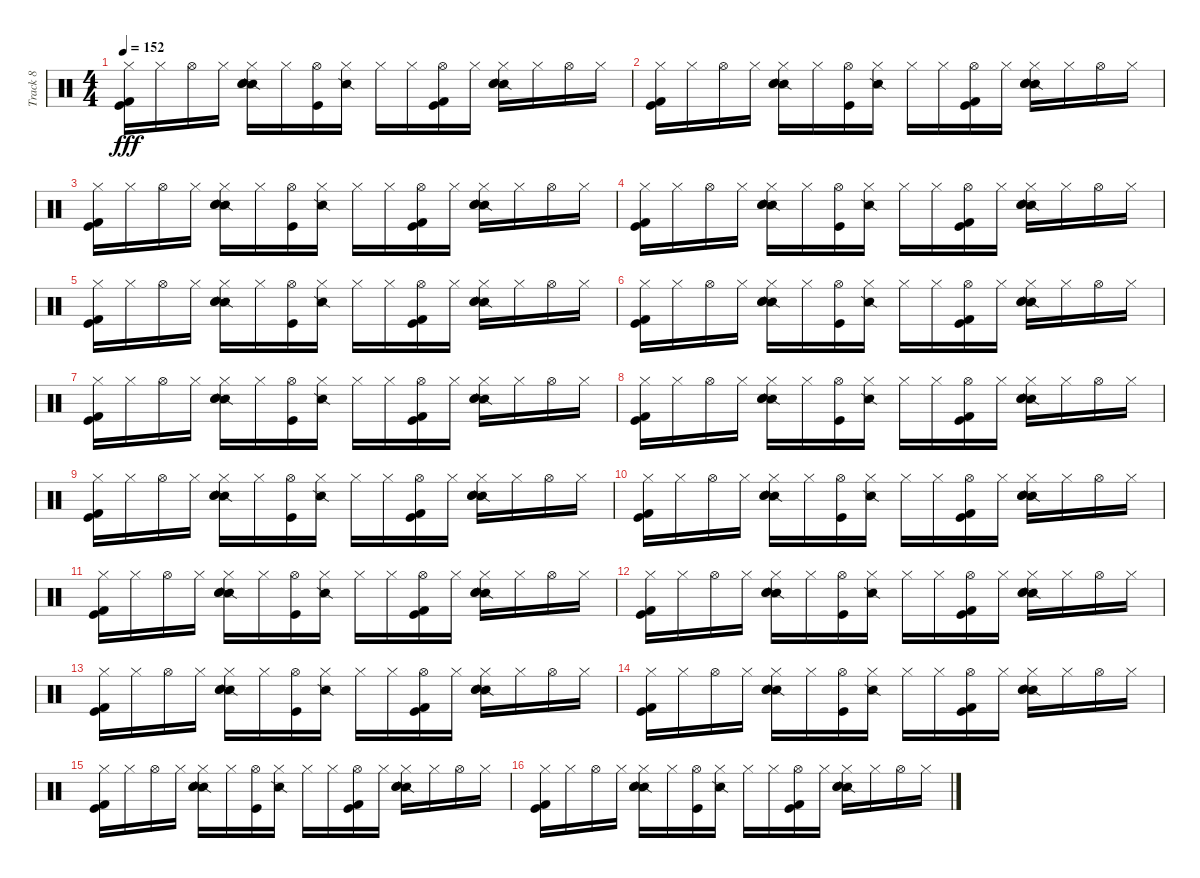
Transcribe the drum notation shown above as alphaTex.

\track ("Track 8" "Track 8") {instrument percussion}
\staff {score}
\articulation defaults
\ts (4 4)
\tempo 152
\clef neutral
\ks c
("Hi-Hat (closed)" "Kick (hit)" "Kick (hit) 2").16{dy fff} "Hi-Hat (closed)".16 "Hi-Hat (open)".16 "Hi-Hat (closed)".16 ("Hi-Hat (closed)" "Snare (side stick) 2" "Snare (hit) 2" "Electric Snare (hit)").16 "Hi-Hat (closed)".16 ("Hi-Hat (open)" "Kick (hit)").16 ("Hi-Hat (closed)" "Snare (side stick) 2").16 "Hi-Hat (closed)".16 "Hi-Hat (closed)".16 ("Hi-Hat (open)" "Kick (hit)" "Kick (hit) 2").16 "Hi-Hat (closed)".16 ("Hi-Hat (closed)" "Snare (side stick) 2" "Snare (hit) 2" "Electric Snare (hit)").16 "Hi-Hat (closed)".16 "Hi-Hat (open)".16 "Hi-Hat (closed)".16 |
("Hi-Hat (closed)" "Kick (hit)" "Kick (hit) 2").16 "Hi-Hat (closed)".16 "Hi-Hat (open)".16 "Hi-Hat (closed)".16 ("Hi-Hat (closed)" "Snare (side stick) 2" "Snare (hit) 2" "Electric Snare (hit)").16 "Hi-Hat (closed)".16 ("Hi-Hat (open)" "Kick (hit)").16 ("Hi-Hat (closed)" "Snare (side stick) 2").16 "Hi-Hat (closed)".16 "Hi-Hat (closed)".16 ("Hi-Hat (open)" "Kick (hit)" "Kick (hit) 2").16 "Hi-Hat (closed)".16 ("Hi-Hat (closed)" "Snare (side stick) 2" "Snare (hit) 2" "Electric Snare (hit)").16 "Hi-Hat (closed)".16 "Hi-Hat (open)".16 "Hi-Hat (closed)".16 |
("Hi-Hat (closed)" "Kick (hit)" "Kick (hit) 2").16 "Hi-Hat (closed)".16 "Hi-Hat (open)".16 "Hi-Hat (closed)".16 ("Hi-Hat (closed)" "Snare (side stick) 2" "Snare (hit) 2" "Electric Snare (hit)").16 "Hi-Hat (closed)".16 ("Hi-Hat (open)" "Kick (hit)").16 ("Hi-Hat (closed)" "Snare (side stick) 2").16 "Hi-Hat (closed)".16 "Hi-Hat (closed)".16 ("Hi-Hat (open)" "Kick (hit)" "Kick (hit) 2").16 "Hi-Hat (closed)".16 ("Hi-Hat (closed)" "Snare (side stick) 2" "Snare (hit) 2" "Electric Snare (hit)").16 "Hi-Hat (closed)".16 "Hi-Hat (open)".16 "Hi-Hat (closed)".16 |
("Hi-Hat (closed)" "Kick (hit)" "Kick (hit) 2").16 "Hi-Hat (closed)".16 "Hi-Hat (open)".16 "Hi-Hat (closed)".16 ("Hi-Hat (closed)" "Snare (side stick) 2" "Snare (hit) 2" "Electric Snare (hit)").16 "Hi-Hat (closed)".16 ("Hi-Hat (open)" "Kick (hit)").16 ("Hi-Hat (closed)" "Snare (side stick) 2").16 "Hi-Hat (closed)".16 "Hi-Hat (closed)".16 ("Hi-Hat (open)" "Kick (hit)" "Kick (hit) 2").16 "Hi-Hat (closed)".16 ("Hi-Hat (closed)" "Snare (side stick) 2" "Snare (hit) 2" "Electric Snare (hit)").16 "Hi-Hat (closed)".16 "Hi-Hat (open)".16 "Hi-Hat (closed)".16 |
("Hi-Hat (closed)" "Kick (hit)" "Kick (hit) 2").16 "Hi-Hat (closed)".16 "Hi-Hat (open)".16 "Hi-Hat (closed)".16 ("Hi-Hat (closed)" "Snare (side stick) 2" "Snare (hit) 2" "Electric Snare (hit)").16 "Hi-Hat (closed)".16 ("Hi-Hat (open)" "Kick (hit)").16 ("Hi-Hat (closed)" "Snare (side stick) 2").16 "Hi-Hat (closed)".16 "Hi-Hat (closed)".16 ("Hi-Hat (open)" "Kick (hit)" "Kick (hit) 2").16 "Hi-Hat (closed)".16 ("Hi-Hat (closed)" "Snare (side stick) 2" "Snare (hit) 2" "Electric Snare (hit)").16 "Hi-Hat (closed)".16 "Hi-Hat (open)".16 "Hi-Hat (closed)".16 |
("Hi-Hat (closed)" "Kick (hit)" "Kick (hit) 2").16 "Hi-Hat (closed)".16 "Hi-Hat (open)".16 "Hi-Hat (closed)".16 ("Hi-Hat (closed)" "Snare (side stick) 2" "Snare (hit) 2" "Electric Snare (hit)").16 "Hi-Hat (closed)".16 ("Hi-Hat (open)" "Kick (hit)").16 ("Hi-Hat (closed)" "Snare (side stick) 2").16 "Hi-Hat (closed)".16 "Hi-Hat (closed)".16 ("Hi-Hat (open)" "Kick (hit)" "Kick (hit) 2").16 "Hi-Hat (closed)".16 ("Hi-Hat (closed)" "Snare (side stick) 2" "Snare (hit) 2" "Electric Snare (hit)").16 "Hi-Hat (closed)".16 "Hi-Hat (open)".16 "Hi-Hat (closed)".16 |
("Hi-Hat (closed)" "Kick (hit)" "Kick (hit) 2").16 "Hi-Hat (closed)".16 "Hi-Hat (open)".16 "Hi-Hat (closed)".16 ("Hi-Hat (closed)" "Snare (side stick) 2" "Snare (hit) 2" "Electric Snare (hit)").16 "Hi-Hat (closed)".16 ("Hi-Hat (open)" "Kick (hit)").16 ("Hi-Hat (closed)" "Snare (side stick) 2").16 "Hi-Hat (closed)".16 "Hi-Hat (closed)".16 ("Hi-Hat (open)" "Kick (hit)" "Kick (hit) 2").16 "Hi-Hat (closed)".16 ("Hi-Hat (closed)" "Snare (side stick) 2" "Snare (hit) 2" "Electric Snare (hit)").16 "Hi-Hat (closed)".16 "Hi-Hat (open)".16 "Hi-Hat (closed)".16 |
("Hi-Hat (closed)" "Kick (hit)" "Kick (hit) 2").16 "Hi-Hat (closed)".16 "Hi-Hat (open)".16 "Hi-Hat (closed)".16 ("Hi-Hat (closed)" "Snare (side stick) 2" "Snare (hit) 2" "Electric Snare (hit)").16 "Hi-Hat (closed)".16 ("Hi-Hat (open)" "Kick (hit)").16 ("Hi-Hat (closed)" "Snare (side stick) 2").16 "Hi-Hat (closed)".16 "Hi-Hat (closed)".16 ("Hi-Hat (open)" "Kick (hit)" "Kick (hit) 2").16 "Hi-Hat (closed)".16 ("Hi-Hat (closed)" "Snare (side stick) 2" "Snare (hit) 2" "Electric Snare (hit)").16 "Hi-Hat (closed)".16 "Hi-Hat (open)".16 "Hi-Hat (closed)".16 |
("Hi-Hat (closed)" "Kick (hit)" "Kick (hit) 2").16 "Hi-Hat (closed)".16 "Hi-Hat (open)".16 "Hi-Hat (closed)".16 ("Hi-Hat (closed)" "Snare (side stick) 2" "Snare (hit) 2" "Electric Snare (hit)").16 "Hi-Hat (closed)".16 ("Hi-Hat (open)" "Kick (hit)").16 ("Hi-Hat (closed)" "Snare (side stick) 2").16 "Hi-Hat (closed)".16 "Hi-Hat (closed)".16 ("Hi-Hat (open)" "Kick (hit)" "Kick (hit) 2").16 "Hi-Hat (closed)".16 ("Hi-Hat (closed)" "Snare (side stick) 2" "Snare (hit) 2" "Electric Snare (hit)").16 "Hi-Hat (closed)".16 "Hi-Hat (open)".16 "Hi-Hat (closed)".16 |
("Hi-Hat (closed)" "Kick (hit)" "Kick (hit) 2").16 "Hi-Hat (closed)".16 "Hi-Hat (open)".16 "Hi-Hat (closed)".16 ("Hi-Hat (closed)" "Snare (side stick) 2" "Snare (hit) 2" "Electric Snare (hit)").16 "Hi-Hat (closed)".16 ("Hi-Hat (open)" "Kick (hit)").16 ("Hi-Hat (closed)" "Snare (side stick) 2").16 "Hi-Hat (closed)".16 "Hi-Hat (closed)".16 ("Hi-Hat (open)" "Kick (hit)" "Kick (hit) 2").16 "Hi-Hat (closed)".16 ("Hi-Hat (closed)" "Snare (side stick) 2" "Snare (hit) 2" "Electric Snare (hit)").16 "Hi-Hat (closed)".16 "Hi-Hat (open)".16 "Hi-Hat (closed)".16 |
("Hi-Hat (closed)" "Kick (hit)" "Kick (hit) 2").16 "Hi-Hat (closed)".16 "Hi-Hat (open)".16 "Hi-Hat (closed)".16 ("Hi-Hat (closed)" "Snare (side stick) 2" "Snare (hit) 2" "Electric Snare (hit)").16 "Hi-Hat (closed)".16 ("Hi-Hat (open)" "Kick (hit)").16 ("Hi-Hat (closed)" "Snare (side stick) 2").16 "Hi-Hat (closed)".16 "Hi-Hat (closed)".16 ("Hi-Hat (open)" "Kick (hit)" "Kick (hit) 2").16 "Hi-Hat (closed)".16 ("Hi-Hat (closed)" "Snare (side stick) 2" "Snare (hit) 2" "Electric Snare (hit)").16 "Hi-Hat (closed)".16 "Hi-Hat (open)".16 "Hi-Hat (closed)".16 |
("Hi-Hat (closed)" "Kick (hit)" "Kick (hit) 2").16 "Hi-Hat (closed)".16 "Hi-Hat (open)".16 "Hi-Hat (closed)".16 ("Hi-Hat (closed)" "Snare (side stick) 2" "Snare (hit) 2" "Electric Snare (hit)").16 "Hi-Hat (closed)".16 ("Hi-Hat (open)" "Kick (hit)").16 ("Hi-Hat (closed)" "Snare (side stick) 2").16 "Hi-Hat (closed)".16 "Hi-Hat (closed)".16 ("Hi-Hat (open)" "Kick (hit)" "Kick (hit) 2").16 "Hi-Hat (closed)".16 ("Hi-Hat (closed)" "Snare (side stick) 2" "Snare (hit) 2" "Electric Snare (hit)").16 "Hi-Hat (closed)".16 "Hi-Hat (open)".16 "Hi-Hat (closed)".16 |
("Hi-Hat (closed)" "Kick (hit)" "Kick (hit) 2").16 "Hi-Hat (closed)".16 "Hi-Hat (open)".16 "Hi-Hat (closed)".16 ("Hi-Hat (closed)" "Snare (side stick) 2" "Snare (hit) 2" "Electric Snare (hit)").16 "Hi-Hat (closed)".16 ("Hi-Hat (open)" "Kick (hit)").16 ("Hi-Hat (closed)" "Snare (side stick) 2").16 "Hi-Hat (closed)".16 "Hi-Hat (closed)".16 ("Hi-Hat (open)" "Kick (hit)" "Kick (hit) 2").16 "Hi-Hat (closed)".16 ("Hi-Hat (closed)" "Snare (side stick) 2" "Snare (hit) 2" "Electric Snare (hit)").16 "Hi-Hat (closed)".16 "Hi-Hat (open)".16 "Hi-Hat (closed)".16 |
("Hi-Hat (closed)" "Kick (hit)" "Kick (hit) 2").16 "Hi-Hat (closed)".16 "Hi-Hat (open)".16 "Hi-Hat (closed)".16 ("Hi-Hat (closed)" "Snare (side stick) 2" "Snare (hit) 2" "Electric Snare (hit)").16 "Hi-Hat (closed)".16 ("Hi-Hat (open)" "Kick (hit)").16 ("Hi-Hat (closed)" "Snare (side stick) 2").16 "Hi-Hat (closed)".16 "Hi-Hat (closed)".16 ("Hi-Hat (open)" "Kick (hit)" "Kick (hit) 2").16 "Hi-Hat (closed)".16 ("Hi-Hat (closed)" "Snare (side stick) 2" "Snare (hit) 2" "Electric Snare (hit)").16 "Hi-Hat (closed)".16 "Hi-Hat (open)".16 "Hi-Hat (closed)".16 |
("Hi-Hat (closed)" "Kick (hit)" "Kick (hit) 2").16 "Hi-Hat (closed)".16 "Hi-Hat (open)".16 "Hi-Hat (closed)".16 ("Hi-Hat (closed)" "Snare (side stick) 2" "Snare (hit) 2" "Electric Snare (hit)").16 "Hi-Hat (closed)".16 ("Hi-Hat (open)" "Kick (hit)").16 ("Hi-Hat (closed)" "Snare (side stick) 2").16 "Hi-Hat (closed)".16 "Hi-Hat (closed)".16 ("Hi-Hat (open)" "Kick (hit)" "Kick (hit) 2").16 "Hi-Hat (closed)".16 ("Hi-Hat (closed)" "Snare (side stick) 2" "Snare (hit) 2" "Electric Snare (hit)").16 "Hi-Hat (closed)".16 "Hi-Hat (open)".16 "Hi-Hat (closed)".16 |
("Hi-Hat (closed)" "Kick (hit)" "Kick (hit) 2").16 "Hi-Hat (closed)".16 "Hi-Hat (open)".16 "Hi-Hat (closed)".16 ("Hi-Hat (closed)" "Snare (side stick) 2" "Snare (hit) 2" "Electric Snare (hit)").16 "Hi-Hat (closed)".16 ("Hi-Hat (open)" "Kick (hit)").16 ("Hi-Hat (closed)" "Snare (side stick) 2").16 "Hi-Hat (closed)".16 "Hi-Hat (closed)".16 ("Hi-Hat (open)" "Kick (hit)" "Kick (hit) 2").16 "Hi-Hat (closed)".16 ("Hi-Hat (closed)" "Snare (side stick) 2" "Snare (hit) 2" "Electric Snare (hit)").16 "Hi-Hat (closed)".16 "Hi-Hat (open)".16 "Hi-Hat (closed)".16
